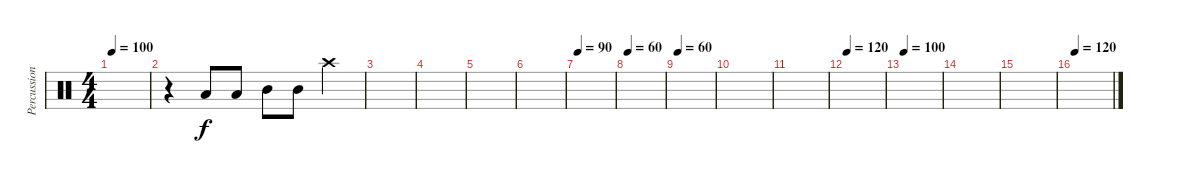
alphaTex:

\track ("Percussion" "Percussion") {instrument percussion}
\staff {score}
\articulation defaults
\ts (4 4)
\tempo 100
\clef neutral
\ks c
|
r.4 "Low Tom (hit)".8 "Low Tom (hit)".8 "Mid Tom (hit)".8 "Mid Tom (hit)".8 "Crash high (hit)".4 |
|
|
|
|
\tempo 90
|
\tempo 60
|
\tempo 60
|
|
|
\tempo 120
|
\tempo 100
|
|
|
\tempo 120
